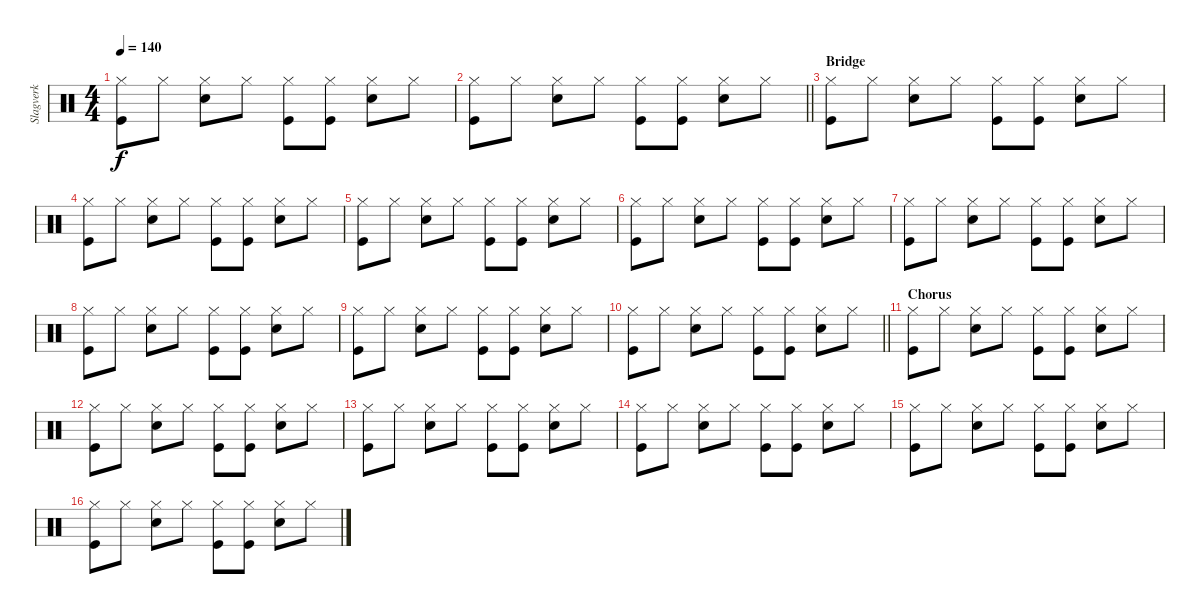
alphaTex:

\track ("Slagverk" "Slagverk") {instrument percussion}
\staff {score}
\articulation defaults
\ts (4 4)
\tempo 140
\clef neutral
\ks c
("Hi-Hat (closed)" "Kick (hit)").8{dy f} "Hi-Hat (closed)".8 ("Hi-Hat (closed)" "Snare (hit) 2").8 "Hi-Hat (closed)".8 ("Hi-Hat (closed)" "Kick (hit)").8 ("Hi-Hat (closed)" "Kick (hit)").8 ("Hi-Hat (closed)" "Snare (hit) 2").8 "Hi-Hat (closed)".8 |
\barLineRight lightlight
("Hi-Hat (closed)" "Kick (hit)").8 "Hi-Hat (closed)".8 ("Hi-Hat (closed)" "Snare (hit) 2").8 "Hi-Hat (closed)".8 ("Hi-Hat (closed)" "Kick (hit)").8 ("Hi-Hat (closed)" "Kick (hit)").8 ("Hi-Hat (closed)" "Snare (hit) 2").8 "Hi-Hat (closed)".8 |
\section ("" "Bridge")
("Hi-Hat (closed)" "Kick (hit)").8 "Hi-Hat (closed)".8 ("Hi-Hat (closed)" "Snare (hit) 2").8 "Hi-Hat (closed)".8 ("Hi-Hat (closed)" "Kick (hit)").8 ("Hi-Hat (closed)" "Kick (hit)").8 ("Hi-Hat (closed)" "Snare (hit) 2").8 "Hi-Hat (closed)".8 |
("Hi-Hat (closed)" "Kick (hit)").8 "Hi-Hat (closed)".8 ("Hi-Hat (closed)" "Snare (hit) 2").8 "Hi-Hat (closed)".8 ("Hi-Hat (closed)" "Kick (hit)").8 ("Hi-Hat (closed)" "Kick (hit)").8 ("Hi-Hat (closed)" "Snare (hit) 2").8 "Hi-Hat (closed)".8 |
("Hi-Hat (closed)" "Kick (hit)").8 "Hi-Hat (closed)".8 ("Hi-Hat (closed)" "Snare (hit) 2").8 "Hi-Hat (closed)".8 ("Hi-Hat (closed)" "Kick (hit)").8 ("Hi-Hat (closed)" "Kick (hit)").8 ("Hi-Hat (closed)" "Snare (hit) 2").8 "Hi-Hat (closed)".8 |
("Hi-Hat (closed)" "Kick (hit)").8 "Hi-Hat (closed)".8 ("Hi-Hat (closed)" "Snare (hit) 2").8 "Hi-Hat (closed)".8 ("Hi-Hat (closed)" "Kick (hit)").8 ("Hi-Hat (closed)" "Kick (hit)").8 ("Hi-Hat (closed)" "Snare (hit) 2").8 "Hi-Hat (closed)".8 |
("Hi-Hat (closed)" "Kick (hit)").8 "Hi-Hat (closed)".8 ("Hi-Hat (closed)" "Snare (hit) 2").8 "Hi-Hat (closed)".8 ("Hi-Hat (closed)" "Kick (hit)").8 ("Hi-Hat (closed)" "Kick (hit)").8 ("Hi-Hat (closed)" "Snare (hit) 2").8 "Hi-Hat (closed)".8 |
("Hi-Hat (closed)" "Kick (hit)").8 "Hi-Hat (closed)".8 ("Hi-Hat (closed)" "Snare (hit) 2").8 "Hi-Hat (closed)".8 ("Hi-Hat (closed)" "Kick (hit)").8 ("Hi-Hat (closed)" "Kick (hit)").8 ("Hi-Hat (closed)" "Snare (hit) 2").8 "Hi-Hat (closed)".8 |
("Hi-Hat (closed)" "Kick (hit)").8 "Hi-Hat (closed)".8 ("Hi-Hat (closed)" "Snare (hit) 2").8 "Hi-Hat (closed)".8 ("Hi-Hat (closed)" "Kick (hit)").8 ("Hi-Hat (closed)" "Kick (hit)").8 ("Hi-Hat (closed)" "Snare (hit) 2").8 "Hi-Hat (closed)".8 |
\barLineRight lightlight
("Hi-Hat (closed)" "Kick (hit)").8 "Hi-Hat (closed)".8 ("Hi-Hat (closed)" "Snare (hit) 2").8 "Hi-Hat (closed)".8 ("Hi-Hat (closed)" "Kick (hit)").8 ("Hi-Hat (closed)" "Kick (hit)").8 ("Hi-Hat (closed)" "Snare (hit) 2").8 "Hi-Hat (closed)".8 |
\section ("" "Chorus")
("Hi-Hat (closed)" "Kick (hit)").8 "Hi-Hat (closed)".8 ("Hi-Hat (closed)" "Snare (hit) 2").8 "Hi-Hat (closed)".8 ("Hi-Hat (closed)" "Kick (hit)").8 ("Hi-Hat (closed)" "Kick (hit)").8 ("Hi-Hat (closed)" "Snare (hit) 2").8 "Hi-Hat (closed)".8 |
("Hi-Hat (closed)" "Kick (hit)").8 "Hi-Hat (closed)".8 ("Hi-Hat (closed)" "Snare (hit) 2").8 "Hi-Hat (closed)".8 ("Hi-Hat (closed)" "Kick (hit)").8 ("Hi-Hat (closed)" "Kick (hit)").8 ("Hi-Hat (closed)" "Snare (hit) 2").8 "Hi-Hat (closed)".8 |
("Hi-Hat (closed)" "Kick (hit)").8 "Hi-Hat (closed)".8 ("Hi-Hat (closed)" "Snare (hit) 2").8 "Hi-Hat (closed)".8 ("Hi-Hat (closed)" "Kick (hit)").8 ("Hi-Hat (closed)" "Kick (hit)").8 ("Hi-Hat (closed)" "Snare (hit) 2").8 "Hi-Hat (closed)".8 |
("Hi-Hat (closed)" "Kick (hit)").8 "Hi-Hat (closed)".8 ("Hi-Hat (closed)" "Snare (hit) 2").8 "Hi-Hat (closed)".8 ("Hi-Hat (closed)" "Kick (hit)").8 ("Hi-Hat (closed)" "Kick (hit)").8 ("Hi-Hat (closed)" "Snare (hit) 2").8 "Hi-Hat (closed)".8 |
("Hi-Hat (closed)" "Kick (hit)").8 "Hi-Hat (closed)".8 ("Hi-Hat (closed)" "Snare (hit) 2").8 "Hi-Hat (closed)".8 ("Hi-Hat (closed)" "Kick (hit)").8 ("Hi-Hat (closed)" "Kick (hit)").8 ("Hi-Hat (closed)" "Snare (hit) 2").8 "Hi-Hat (closed)".8 |
("Hi-Hat (closed)" "Kick (hit)").8 "Hi-Hat (closed)".8 ("Hi-Hat (closed)" "Snare (hit) 2").8 "Hi-Hat (closed)".8 ("Hi-Hat (closed)" "Kick (hit)").8 ("Hi-Hat (closed)" "Kick (hit)").8 ("Hi-Hat (closed)" "Snare (hit) 2").8 "Hi-Hat (closed)".8
